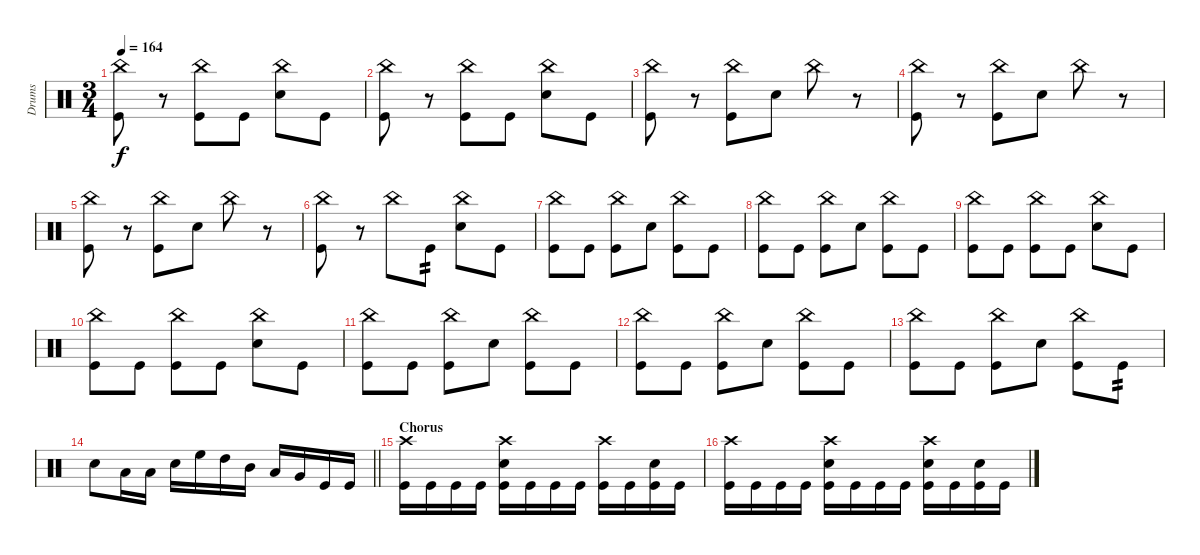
\track ("Drums" "Drums") {instrument percussion}
\staff {score}
\articulation defaults
\ts (3 4)
\tempo 164
\clef neutral
\ks c
("China (hit)" "Kick (hit)").8{dy f} r.8 ("China (hit)" "Kick (hit)").8 "Kick (hit)".8 ("China (hit)" "Snare (hit) 2").8 "Kick (hit)".8 |
("China (hit)" "Kick (hit)").8 r.8 ("China (hit)" "Kick (hit)").8 "Kick (hit)".8 ("China (hit)" "Snare (hit) 2").8 "Kick (hit)".8 |
("China (hit)" "Kick (hit)").8 r.8 ("China (hit)" "Kick (hit)").8 "Snare (hit) 2".8 "China (hit)".8 r.8 |
("China (hit)" "Kick (hit)").8 r.8 ("China (hit)" "Kick (hit)").8 "Snare (hit) 2".8 "China (hit)".8 r.8 |
("China (hit)" "Kick (hit)").8 r.8 ("China (hit)" "Kick (hit)").8 "Snare (hit) 2".8 "China (hit)".8 r.8 |
("China (hit)" "Kick (hit)").8 r.8 "China (hit)".8 "Kick (hit)".8{tp 2} ("China (hit)" "Snare (hit) 2").8 "Kick (hit)".8 |
("China (hit)" "Kick (hit)").8 "Kick (hit)".8 ("China (hit)" "Kick (hit)").8 "Snare (hit) 2".8 ("China (hit)" "Kick (hit)").8 "Kick (hit)".8 |
("China (hit)" "Kick (hit)").8 "Kick (hit)".8 ("China (hit)" "Kick (hit)").8 "Snare (hit) 2".8 ("China (hit)" "Kick (hit)").8 "Kick (hit)".8 |
("China (hit)" "Kick (hit)").8 "Kick (hit)".8 ("China (hit)" "Kick (hit)").8 "Kick (hit)".8 ("China (hit)" "Snare (hit) 2").8 "Kick (hit)".8 |
("China (hit)" "Kick (hit)").8 "Kick (hit)".8 ("China (hit)" "Kick (hit)").8 "Kick (hit)".8 ("China (hit)" "Snare (hit) 2").8 "Kick (hit)".8 |
("China (hit)" "Kick (hit)").8 "Kick (hit)".8 ("China (hit)" "Kick (hit)").8 "Snare (hit) 2".8 ("China (hit)" "Kick (hit)").8 "Kick (hit)".8 |
("China (hit)" "Kick (hit)").8 "Kick (hit)".8 ("China (hit)" "Kick (hit)").8 "Snare (hit) 2".8 ("China (hit)" "Kick (hit)").8 "Kick (hit)".8 |
("China (hit)" "Kick (hit)").8 "Kick (hit)".8 ("China (hit)" "Kick (hit)").8 "Snare (hit) 2".8 ("China (hit)" "Kick (hit)").8 "Kick (hit)".8{tp 2} |
\barLineRight lightlight "Snare (hit) 2".8 "Low Tom (hit)".16 "Low Tom (hit)".16 "Snare (hit) 2".16 "High Floor Tom (hit)".16 "High Tom (hit)".16 "Mid Tom (hit)".16 "Low Tom (hit)".16 "Very Low Tom (hit)".16 "Kick (hit)".16 "Kick (hit)".16
|
\section ("" "Chorus")
("Crash high (hit)" "Kick (hit)").16 "Kick (hit)".16 "Kick (hit)".16 "Kick (hit)".16 ("Crash high (hit)" "Snare (hit) 2" "Kick (hit)").16 "Kick (hit)".16 "Kick (hit)".16 "Kick (hit)".16 ("Crash high (hit)" "Kick (hit)").16 "Kick (hit)".16 ("Snare (hit) 2" "Kick (hit)").16 "Kick (hit)".16 |
("Crash high (hit)" "Kick (hit)").16 "Kick (hit)".16 "Kick (hit)".16 "Kick (hit)".16 ("Crash high (hit)" "Snare (hit) 2" "Kick (hit)").16 "Kick (hit)".16 "Kick (hit)".16 "Kick (hit)".16 ("Crash high (hit)" "Snare (hit) 2" "Kick (hit)").16 "Kick (hit)".16 ("Snare (hit) 2" "Kick (hit)").16 "Kick (hit)".16
